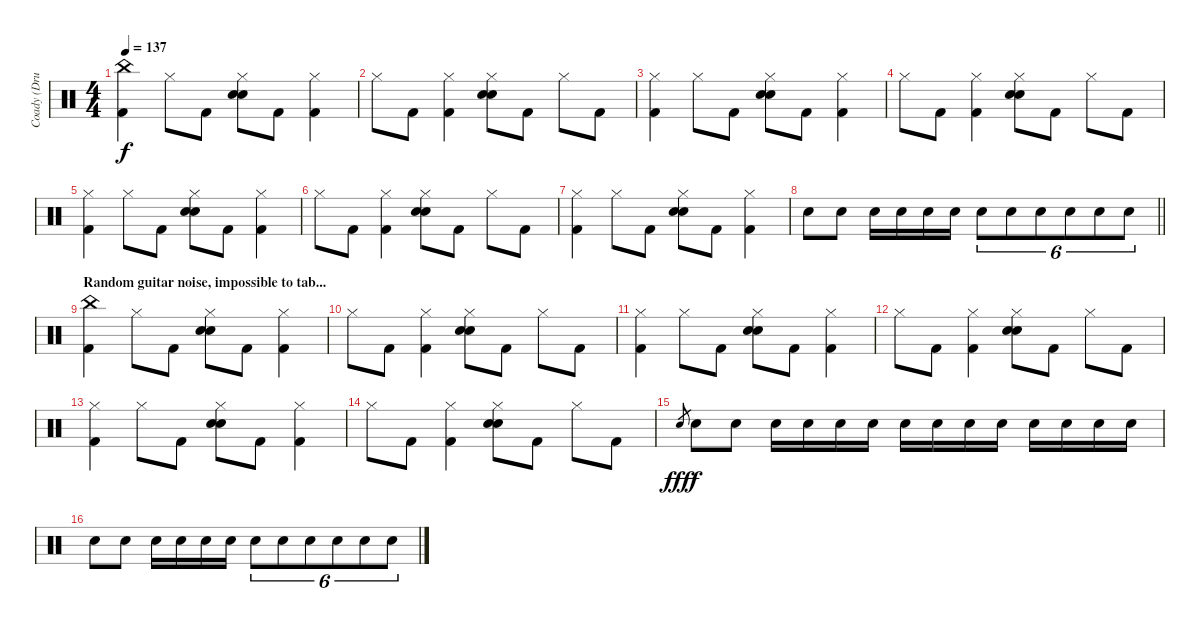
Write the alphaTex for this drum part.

\track ("Coady (Drums 2)" "Coady (Dru") {instrument percussion}
\staff {score}
\articulation defaults
\ts (4 4)
\tempo 137
\clef neutral
\ks c
("China (hit)" "Kick (hit) 2").4{dy f} "Hi-Hat (closed)".8 "Kick (hit) 2".8 ("Hi-Hat (closed)" "Snare (hit) 2" "Electric Snare (hit)").8 "Kick (hit) 2".8 ("Kick (hit) 2" "Hi-Hat (closed)").4 |
"Hi-Hat (closed)".8 "Kick (hit) 2".8 ("Hi-Hat (closed)" "Kick (hit) 2").4 ("Hi-Hat (closed)" "Snare (hit) 2" "Electric Snare (hit)").8 "Kick (hit) 2".8 "Hi-Hat (closed)".8 "Kick (hit) 2".8 |
("Hi-Hat (closed)" "Kick (hit) 2").4 "Hi-Hat (closed)".8 "Kick (hit) 2".8 ("Hi-Hat (closed)" "Snare (hit) 2" "Electric Snare (hit)").8 "Kick (hit) 2".8 ("Kick (hit) 2" "Hi-Hat (closed)").4 |
"Hi-Hat (closed)".8 "Kick (hit) 2".8 ("Hi-Hat (closed)" "Kick (hit) 2").4 ("Hi-Hat (closed)" "Snare (hit) 2" "Electric Snare (hit)").8 "Kick (hit) 2".8 "Hi-Hat (closed)".8 "Kick (hit) 2".8 |
("Hi-Hat (closed)" "Kick (hit) 2").4 "Hi-Hat (closed)".8 "Kick (hit) 2".8 ("Hi-Hat (closed)" "Snare (hit) 2" "Electric Snare (hit)").8 "Kick (hit) 2".8 ("Kick (hit) 2" "Hi-Hat (closed)").4 |
"Hi-Hat (closed)".8 "Kick (hit) 2".8 ("Hi-Hat (closed)" "Kick (hit) 2").4 ("Hi-Hat (closed)" "Snare (hit) 2" "Electric Snare (hit)").8 "Kick (hit) 2".8 "Hi-Hat (closed)".8 "Kick (hit) 2".8 |
("Hi-Hat (closed)" "Kick (hit) 2").4 "Hi-Hat (closed)".8 "Kick (hit) 2".8 ("Hi-Hat (closed)" "Snare (hit) 2" "Electric Snare (hit)").8 "Kick (hit) 2".8 ("Kick (hit) 2" "Hi-Hat (closed)").4 |
\barLineRight lightlight "Snare (hit) 2".8 "Snare (hit) 2".8 "Snare (hit) 2".16 "Snare (hit) 2".16 "Snare (hit) 2".16 "Snare (hit) 2".16 "Snare (hit) 2".8{tu (6 4)} "Snare (hit) 2".8{tu (6 4)} "Snare (hit) 2".8{tu (6 4)} "Snare (hit) 2".8{tu (6 4)} "Snare (hit) 2".8{tu (6 4)} "Snare (hit) 2".8{tu (6 4)}
|
\section ("" "Random guitar noise, impossible to tab...")
("China (hit)" "Kick (hit) 2").4 "Hi-Hat (closed)".8 "Kick (hit) 2".8 ("Hi-Hat (closed)" "Snare (hit) 2" "Electric Snare (hit)").8 "Kick (hit) 2".8 ("Kick (hit) 2" "Hi-Hat (closed)").4 |
"Hi-Hat (closed)".8 "Kick (hit) 2".8 ("Hi-Hat (closed)" "Kick (hit) 2").4 ("Hi-Hat (closed)" "Snare (hit) 2" "Electric Snare (hit)").8 "Kick (hit) 2".8 "Hi-Hat (closed)".8 "Kick (hit) 2".8 |
("Hi-Hat (closed)" "Kick (hit) 2").4 "Hi-Hat (closed)".8 "Kick (hit) 2".8 ("Hi-Hat (closed)" "Snare (hit) 2" "Electric Snare (hit)").8 "Kick (hit) 2".8 ("Kick (hit) 2" "Hi-Hat (closed)").4 |
"Hi-Hat (closed)".8 "Kick (hit) 2".8 ("Hi-Hat (closed)" "Kick (hit) 2").4 ("Hi-Hat (closed)" "Snare (hit) 2" "Electric Snare (hit)").8 "Kick (hit) 2".8 "Hi-Hat (closed)".8 "Kick (hit) 2".8 |
("Hi-Hat (closed)" "Kick (hit) 2").4 "Hi-Hat (closed)".8 "Kick (hit) 2".8 ("Hi-Hat (closed)" "Snare (hit) 2" "Electric Snare (hit)").8 "Kick (hit) 2".8 ("Kick (hit) 2" "Hi-Hat (closed)").4 |
"Hi-Hat (closed)".8 "Kick (hit) 2".8 ("Hi-Hat (closed)" "Kick (hit) 2").4 ("Hi-Hat (closed)" "Snare (hit) 2" "Electric Snare (hit)").8 "Kick (hit) 2".8 "Hi-Hat (closed)".8 "Kick (hit) 2".8 |
"Snare (hit) 2".8{gr dy fff} "Snare (hit) 2".8{dy f} "Snare (hit) 2".8 "Snare (hit) 2".16 "Snare (hit) 2".16 "Snare (hit) 2".16 "Snare (hit) 2".16 "Snare (hit) 2".16 "Snare (hit) 2".16 "Snare (hit) 2".16 "Snare (hit) 2".16 "Snare (hit) 2".16 "Snare (hit) 2".16 "Snare (hit) 2".16 "Snare (hit) 2".16 |
"Snare (hit) 2".8 "Snare (hit) 2".8 "Snare (hit) 2".16 "Snare (hit) 2".16 "Snare (hit) 2".16 "Snare (hit) 2".16 "Snare (hit) 2".8{tu (6 4)} "Snare (hit) 2".8{tu (6 4)} "Snare (hit) 2".8{tu (6 4)} "Snare (hit) 2".8{tu (6 4)} "Snare (hit) 2".8{tu (6 4)} "Snare (hit) 2".8{tu (6 4)}
